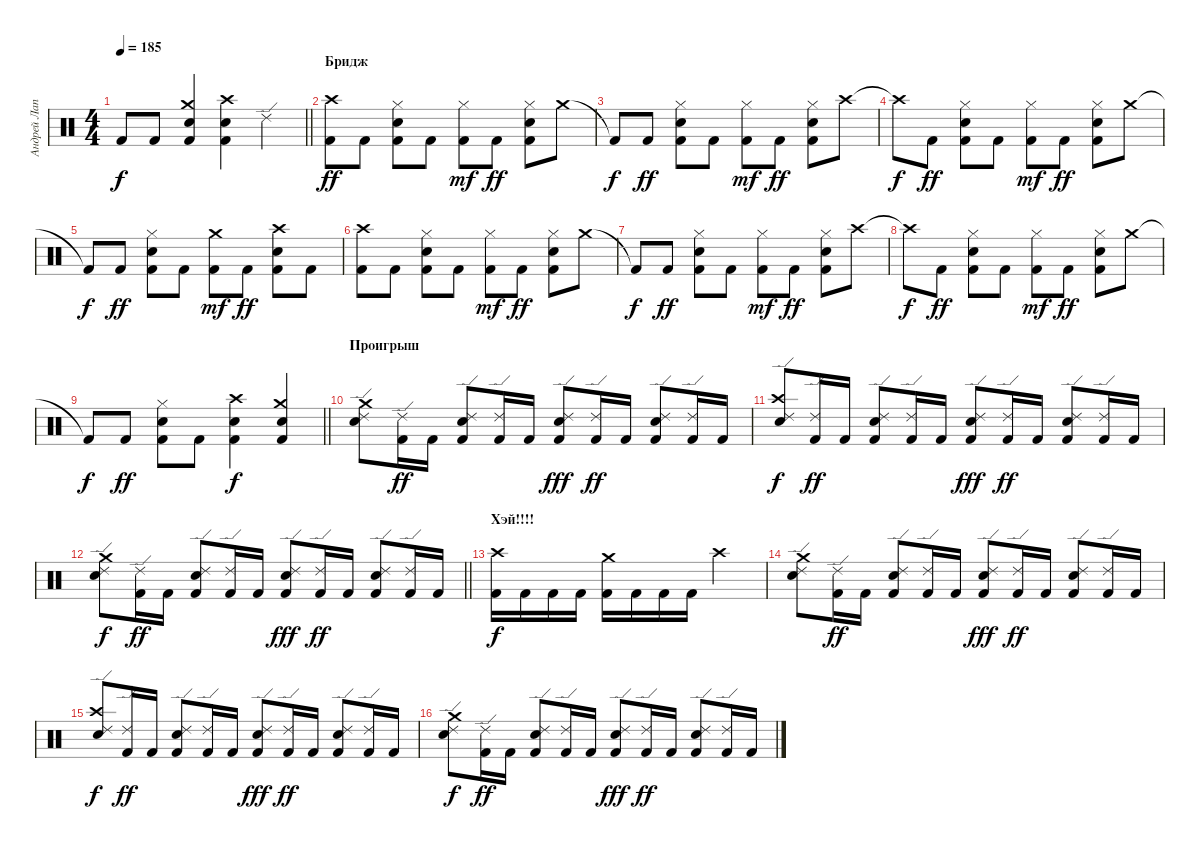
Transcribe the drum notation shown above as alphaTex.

\track ("Андрей Лаптев" "Андрей Лап") {instrument percussion}
\staff {score}
\articulation defaults
\ts (4 4)
\tempo 185
\clef neutral
\barLineRight lightlight
\ks c "Kick (hit) 2".8{dy f} "Kick (hit) 2".8
("Kick (hit) 2" "Crash medium (hit)" "Electric Snare (hit)").4 ("Electric Snare (hit)" "Crash high (hit)" "Kick (hit) 2").4 "Ride (edge) 2".4 |
\section ("" "Бридж")
("Crash high (hit)" "Kick (hit) 2").8{dy ff} "Kick (hit) 2".8 ("Hi-Hat (closed)" "Electric Snare (hit)" "Kick (hit) 2").8 "Kick (hit) 2".8 ("Kick (hit) 2" "Hi-Hat (closed)").8{dy mf} "Kick (hit) 2".8{dy ff} ("Electric Snare (hit)" "Hi-Hat (closed)" "Kick (hit) 2").8 "Crash medium (hit)".8 |
"Kick (hit) 2"{t}.8{dy f} "Kick (hit) 2".8{dy ff} ("Electric Snare (hit)" "Hi-Hat (closed)" "Kick (hit) 2").8 "Kick (hit) 2".8 ("Kick (hit) 2" "Hi-Hat (closed)").8{dy mf} "Kick (hit) 2".8{dy ff} ("Hi-Hat (closed)" "Electric Snare (hit)" "Kick (hit) 2").8 "Crash high (hit)".8 |
"Crash high (hit)"{t}.8{dy f} "Kick (hit) 2".8{dy ff} ("Hi-Hat (closed)" "Electric Snare (hit)" "Kick (hit) 2").8 "Kick (hit) 2".8 ("Kick (hit) 2" "Hi-Hat (closed)").8{dy mf} "Kick (hit) 2".8{dy ff} ("Electric Snare (hit)" "Hi-Hat (closed)" "Kick (hit) 2").8 "Crash medium (hit)".8 |
"Kick (hit) 2"{t}.8{dy f} "Kick (hit) 2".8{dy ff} ("Electric Snare (hit)" "Hi-Hat (closed)" "Kick (hit) 2").8 "Kick (hit) 2".8 ("Kick (hit) 2" "Crash medium (hit)").8{dy mf} "Kick (hit) 2".8{dy ff} ("Crash high (hit)" "Electric Snare (hit)" "Kick (hit) 2").8 "Kick (hit) 2".8 |
("Crash high (hit)" "Kick (hit) 2").8 "Kick (hit) 2".8 ("Hi-Hat (closed)" "Electric Snare (hit)" "Kick (hit) 2").8 "Kick (hit) 2".8 ("Kick (hit) 2" "Hi-Hat (closed)").8{dy mf} "Kick (hit) 2".8{dy ff} ("Electric Snare (hit)" "Hi-Hat (closed)" "Kick (hit) 2").8 "Crash medium (hit)".8 |
"Kick (hit) 2"{t}.8{dy f} "Kick (hit) 2".8{dy ff} ("Electric Snare (hit)" "Hi-Hat (closed)" "Kick (hit) 2").8 "Kick (hit) 2".8 ("Kick (hit) 2" "Hi-Hat (closed)").8{dy mf} "Kick (hit) 2".8{dy ff} ("Hi-Hat (closed)" "Electric Snare (hit)" "Kick (hit) 2").8 "Crash high (hit)".8 |
"Crash high (hit)"{t}.8{dy f} "Kick (hit) 2".8{dy ff} ("Hi-Hat (closed)" "Electric Snare (hit)" "Kick (hit) 2").8 "Kick (hit) 2".8 ("Kick (hit) 2" "Hi-Hat (closed)").8{dy mf} "Kick (hit) 2".8{dy ff} ("Electric Snare (hit)" "Hi-Hat (closed)" "Kick (hit) 2").8 "Crash medium (hit)".8 |
\barLineRight lightlight "Kick (hit) 2"{t}.8{dy f} "Kick (hit) 2".8{dy ff}
("Electric Snare (hit)" "Hi-Hat (closed)" "Kick (hit) 2").8 "Kick (hit) 2".8 ("Electric Snare (hit)" "Crash high (hit)" "Kick (hit) 2").4{dy f} ("Electric Snare (hit)" "Crash medium (hit)" "Kick (hit) 2").4 |
\section ("" "Проигрыш")
("Ride (edge) 2" "Crash medium (hit)" "Electric Snare (hit)").8 ("Kick (hit) 2" "Ride (edge) 2").16{dy ff} "Kick (hit) 2".16 ("Kick (hit) 2" "Electric Snare (hit)" "Ride (edge) 2").8 ("Kick (hit) 2" "Ride (edge) 2").16 "Kick (hit) 2".16 ("Kick (hit) 2" "Ride (edge) 2" "Electric Snare (hit)").8{dy fff} ("Kick (hit) 2" "Ride (edge) 2").16{dy ff} "Kick (hit) 2".16 ("Ride (edge) 2" "Electric Snare (hit)" "Kick (hit) 2").8 ("Kick (hit) 2" "Ride (edge) 2").16 "Kick (hit) 2".16 |
("Ride (edge) 2" "Crash high (hit)" "Electric Snare (hit)").8{dy f} ("Kick (hit) 2" "Ride (edge) 2").16{dy ff} "Kick (hit) 2".16 ("Kick (hit) 2" "Electric Snare (hit)" "Ride (edge) 2").8 ("Kick (hit) 2" "Ride (edge) 2").16 "Kick (hit) 2".16 ("Kick (hit) 2" "Ride (edge) 2" "Electric Snare (hit)").8{dy fff} ("Kick (hit) 2" "Ride (edge) 2").16{dy ff} "Kick (hit) 2".16 ("Ride (edge) 2" "Electric Snare (hit)" "Kick (hit) 2").8 ("Kick (hit) 2" "Ride (edge) 2").16 "Kick (hit) 2".16 |
\barLineRight lightlight
("Ride (edge) 2" "Crash medium (hit)" "Electric Snare (hit)").8{dy f} ("Kick (hit) 2" "Ride (edge) 2").16{dy ff} "Kick (hit) 2".16 ("Kick (hit) 2" "Electric Snare (hit)" "Ride (edge) 2").8 ("Kick (hit) 2" "Ride (edge) 2").16 "Kick (hit) 2".16 ("Kick (hit) 2" "Ride (edge) 2" "Electric Snare (hit)").8{dy fff} ("Kick (hit) 2" "Ride (edge) 2").16{dy ff} "Kick (hit) 2".16 ("Ride (edge) 2" "Electric Snare (hit)" "Kick (hit) 2").8 ("Kick (hit) 2" "Ride (edge) 2").16 "Kick (hit) 2".16 |
\section ("" "Хэй!!!!")
("Kick (hit) 2" "Crash high (hit)").16{dy f} "Kick (hit) 2".16 "Kick (hit) 2".16 "Kick (hit) 2".16 ("Kick (hit) 2" "Crash medium (hit)").16 "Kick (hit) 2".16 "Kick (hit) 2".16 "Kick (hit) 2".16 "Crash high (hit)".2 |
("Ride (edge) 2" "Crash medium (hit)" "Electric Snare (hit)").8 ("Kick (hit) 2" "Ride (edge) 2").16{dy ff} "Kick (hit) 2".16 ("Kick (hit) 2" "Electric Snare (hit)" "Ride (edge) 2").8 ("Kick (hit) 2" "Ride (edge) 2").16 "Kick (hit) 2".16 ("Kick (hit) 2" "Ride (edge) 2" "Electric Snare (hit)").8{dy fff} ("Kick (hit) 2" "Ride (edge) 2").16{dy ff} "Kick (hit) 2".16 ("Ride (edge) 2" "Electric Snare (hit)" "Kick (hit) 2").8 ("Kick (hit) 2" "Ride (edge) 2").16 "Kick (hit) 2".16 |
("Ride (edge) 2" "Crash high (hit)" "Electric Snare (hit)").8{dy f} ("Kick (hit) 2" "Ride (edge) 2").16{dy ff} "Kick (hit) 2".16 ("Kick (hit) 2" "Electric Snare (hit)" "Ride (edge) 2").8 ("Kick (hit) 2" "Ride (edge) 2").16 "Kick (hit) 2".16 ("Kick (hit) 2" "Ride (edge) 2" "Electric Snare (hit)").8{dy fff} ("Kick (hit) 2" "Ride (edge) 2").16{dy ff} "Kick (hit) 2".16 ("Ride (edge) 2" "Electric Snare (hit)" "Kick (hit) 2").8 ("Kick (hit) 2" "Ride (edge) 2").16 "Kick (hit) 2".16 |
("Ride (edge) 2" "Crash medium (hit)" "Electric Snare (hit)").8{dy f} ("Kick (hit) 2" "Ride (edge) 2").16{dy ff} "Kick (hit) 2".16 ("Kick (hit) 2" "Electric Snare (hit)" "Ride (edge) 2").8 ("Kick (hit) 2" "Ride (edge) 2").16 "Kick (hit) 2".16 ("Kick (hit) 2" "Ride (edge) 2" "Electric Snare (hit)").8{dy fff} ("Kick (hit) 2" "Ride (edge) 2").16{dy ff} "Kick (hit) 2".16 ("Ride (edge) 2" "Electric Snare (hit)" "Kick (hit) 2").8 ("Kick (hit) 2" "Ride (edge) 2").16 "Kick (hit) 2".16
